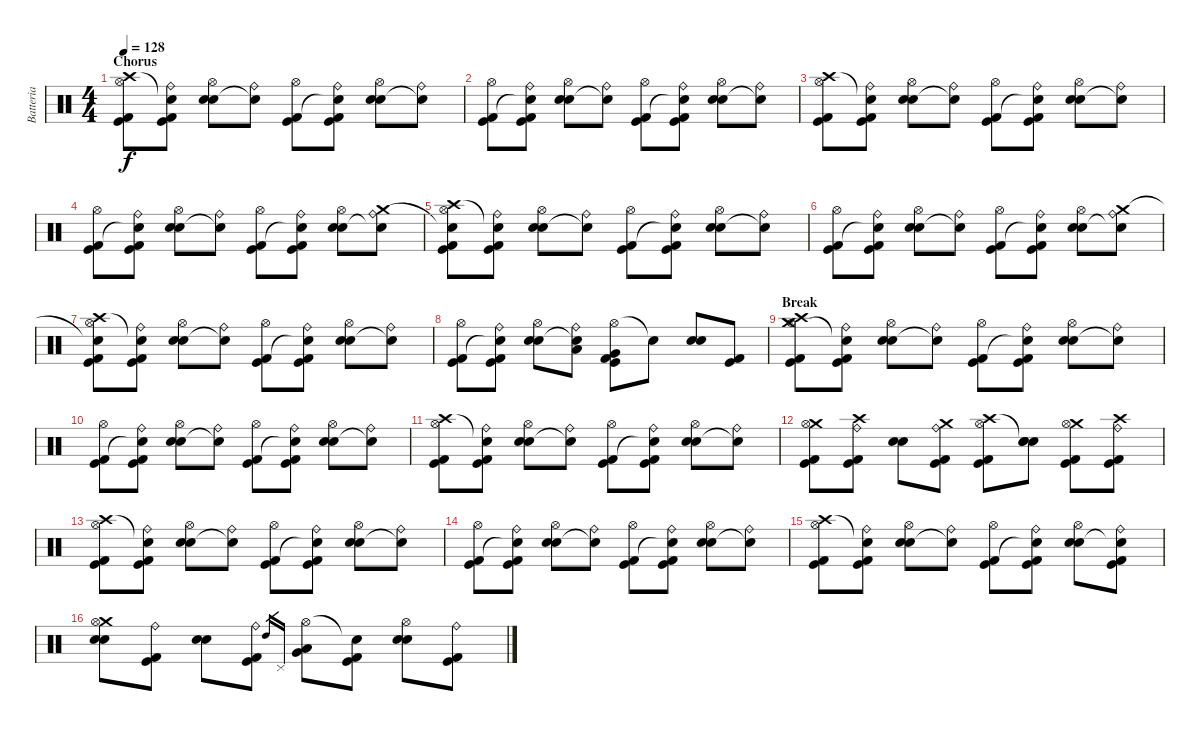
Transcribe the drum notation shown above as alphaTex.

\track ("Batteria" "Batteria") {instrument percussion}
\staff {score}
\articulation defaults
\ts (4 4)
\section ("" "Chorus")
\tempo 128
\clef neutral
\ks c
("Hi-Hat (open)" "Crash high (hit)" "Kick (hit) 2" "Kick (hit)").8{dy f} ("Ride (bell)" "Snare (hit)"{t} "Kick (hit) 2" "Kick (hit)").8 ("Hi-Hat (open)" "Electric Snare (hit)" "Electric Snare (hit)").8 ("Ride (bell)" "Snare (hit)"{t}).8 ("Hi-Hat (open)" "Kick (hit) 2" "Kick (hit)").8 ("Ride (bell)" "Snare (hit)"{t} "Kick (hit) 2" "Kick (hit)").8 ("Hi-Hat (open)" "Electric Snare (hit)" "Electric Snare (hit)").8 ("Ride (bell)" "Snare (hit)"{t}).8 |
("Hi-Hat (open)" "Kick (hit) 2" "Kick (hit)").8 ("Ride (bell)" "Snare (hit)"{t} "Kick (hit) 2" "Kick (hit)").8 ("Hi-Hat (open)" "Electric Snare (hit)" "Electric Snare (hit)").8 ("Ride (bell)" "Snare (hit)"{t}).8 ("Hi-Hat (open)" "Kick (hit) 2" "Kick (hit)").8 ("Ride (bell)" "Snare (hit)"{t} "Kick (hit) 2" "Kick (hit)").8 ("Hi-Hat (open)" "Electric Snare (hit)" "Electric Snare (hit)").8 ("Ride (bell)" "Snare (hit)"{t}).8 |
("Hi-Hat (open)" "Crash high (hit)" "Kick (hit) 2" "Kick (hit)").8 ("Ride (bell)" "Snare (hit)"{t} "Kick (hit) 2" "Kick (hit)").8 ("Hi-Hat (open)" "Electric Snare (hit)" "Electric Snare (hit)").8 ("Ride (bell)" "Snare (hit)"{t}).8 ("Hi-Hat (open)" "Kick (hit) 2" "Kick (hit)").8 ("Ride (bell)" "Snare (hit)"{t} "Kick (hit) 2" "Kick (hit)").8 ("Hi-Hat (open)" "Electric Snare (hit)" "Electric Snare (hit)").8 ("Ride (bell)" "Snare (hit)"{t}).8 |
("Hi-Hat (open)" "Kick (hit) 2" "Kick (hit)").8 ("Ride (bell)" "Snare (hit)"{t} "Kick (hit) 2" "Kick (hit)").8 ("Hi-Hat (open)" "Electric Snare (hit)" "Electric Snare (hit)").8 ("Ride (bell)" "Snare (hit)"{t}).8 ("Hi-Hat (open)" "Kick (hit) 2" "Kick (hit)").8 ("Ride (bell)" "Snare (hit)"{t} "Kick (hit) 2" "Kick (hit)").8 ("Hi-Hat (open)" "Electric Snare (hit)" "Electric Snare (hit)").8 ("Ride (bell)" "Snare (hit)"{t} "Crash medium (hit)").8 |
("Hi-Hat (open)" "Crash high (hit)" "Snare (hit)"{t} "Kick (hit) 2" "Kick (hit)").8 ("Ride (bell)" "Snare (hit)"{t} "Kick (hit) 2" "Kick (hit)").8 ("Hi-Hat (open)" "Electric Snare (hit)" "Electric Snare (hit)").8 ("Ride (bell)" "Snare (hit)"{t}).8 ("Hi-Hat (open)" "Kick (hit) 2" "Kick (hit)").8 ("Ride (bell)" "Snare (hit)"{t} "Kick (hit) 2" "Kick (hit)").8 ("Hi-Hat (open)" "Electric Snare (hit)" "Electric Snare (hit)").8 ("Ride (bell)" "Snare (hit)"{t}).8 |
("Hi-Hat (open)" "Kick (hit) 2" "Kick (hit)").8 ("Ride (bell)" "Snare (hit)"{t} "Kick (hit) 2" "Kick (hit)").8 ("Hi-Hat (open)" "Electric Snare (hit)" "Electric Snare (hit)").8 ("Ride (bell)" "Snare (hit)"{t}).8 ("Hi-Hat (open)" "Kick (hit) 2" "Kick (hit)").8 ("Ride (bell)" "Snare (hit)"{t} "Kick (hit) 2" "Kick (hit)").8 ("Hi-Hat (open)" "Electric Snare (hit)" "Electric Snare (hit)").8 ("Ride (bell)" "Snare (hit)"{t} "Crash medium (hit)").8 |
("Hi-Hat (open)" "Crash high (hit)" "Snare (hit)"{t} "Kick (hit) 2" "Kick (hit)").8 ("Ride (bell)" "Snare (hit)"{t} "Kick (hit) 2" "Kick (hit)").8 ("Hi-Hat (open)" "Electric Snare (hit)" "Electric Snare (hit)").8 ("Ride (bell)" "Snare (hit)"{t}).8 ("Hi-Hat (open)" "Kick (hit) 2" "Kick (hit)").8 ("Ride (bell)" "Snare (hit)"{t} "Kick (hit) 2" "Kick (hit)").8 ("Hi-Hat (open)" "Electric Snare (hit)" "Electric Snare (hit)").8 ("Ride (bell)" "Snare (hit)"{t}).8 |
("Hi-Hat (open)" "Kick (hit) 2" "Kick (hit)").8 ("Ride (bell)" "Snare (hit)"{t} "Kick (hit) 2" "Kick (hit)").8 ("Hi-Hat (open)" "Electric Snare (hit)" "Electric Snare (hit)").8 ("Ride (bell)" "Snare (hit)"{t} "Low Tom (hit)").8 ("Hi-Hat (open)" "Very Low Tom (hit)" "Kick (hit) 2" "Kick (hit)").8 "Snare (hit)"{t}.8 ("Electric Snare (hit)" "Electric Snare (hit)").8 ("Kick (hit) 2" "Kick (hit)").8 |
\section ("" "Break")
("Crash medium (hit)" "Hi-Hat (open)" "Crash high (hit)" "Kick (hit) 2" "Kick (hit)").8 ("Ride (bell)" "Snare (hit)"{t} "Kick (hit) 2" "Kick (hit)").8 ("Hi-Hat (open)" "Electric Snare (hit)" "Electric Snare (hit)").8 ("Ride (bell)" "Snare (hit)"{t}).8 ("Hi-Hat (open)" "Kick (hit) 2" "Kick (hit)").8 ("Ride (bell)" "Snare (hit)"{t} "Kick (hit) 2" "Kick (hit)").8 ("Hi-Hat (open)" "Electric Snare (hit)" "Electric Snare (hit)").8 ("Ride (bell)" "Snare (hit)"{t}).8 |
("Hi-Hat (open)" "Kick (hit) 2" "Kick (hit)").8 ("Ride (bell)" "Snare (hit)"{t} "Kick (hit) 2" "Kick (hit)").8 ("Hi-Hat (open)" "Electric Snare (hit)" "Electric Snare (hit)").8 ("Ride (bell)" "Snare (hit)"{t}).8 ("Hi-Hat (open)" "Kick (hit) 2" "Kick (hit)").8 ("Ride (bell)" "Snare (hit)"{t} "Kick (hit) 2" "Kick (hit)").8 ("Hi-Hat (open)" "Electric Snare (hit)" "Electric Snare (hit)").8 ("Ride (bell)" "Snare (hit)"{t}).8 |
("Hi-Hat (open)" "Crash high (hit)" "Kick (hit) 2" "Kick (hit)").8 ("Ride (bell)" "Snare (hit)"{t} "Kick (hit) 2" "Kick (hit)").8 ("Hi-Hat (open)" "Electric Snare (hit)" "Electric Snare (hit)").8 ("Ride (bell)" "Snare (hit)"{t}).8 ("Hi-Hat (open)" "Kick (hit) 2" "Kick (hit)").8 ("Ride (bell)" "Snare (hit)"{t} "Kick (hit) 2" "Kick (hit)").8 ("Hi-Hat (open)" "Electric Snare (hit)" "Electric Snare (hit)").8 ("Ride (bell)" "Snare (hit)"{t}).8 |
("Crash medium (hit)" "Hi-Hat (open)" "Kick (hit) 2" "Kick (hit)").8 ("Ride (bell)" "Crash high (hit)" "Kick (hit) 2" "Kick (hit)").8 ("Electric Snare (hit)" "Electric Snare (hit)").8 ("Ride (bell)" "Crash medium (hit)" "Kick (hit) 2" "Kick (hit)").8 ("Crash high (hit)" "Hi-Hat (open)" "Kick (hit) 2" "Kick (hit)").8 ("Snare (hit)"{t} "Electric Snare (hit)" "Electric Snare (hit)").8 ("Crash medium (hit)" "Hi-Hat (open)" "Kick (hit) 2" "Kick (hit)").8 ("Ride (bell)" "Crash high (hit)" "Kick (hit) 2" "Kick (hit)").8 |
("Hi-Hat (open)" "Crash high (hit)" "Kick (hit) 2" "Kick (hit)").8 ("Ride (bell)" "Snare (hit)"{t} "Kick (hit) 2" "Kick (hit)").8 ("Hi-Hat (open)" "Electric Snare (hit)" "Electric Snare (hit)").8 ("Ride (bell)" "Snare (hit)"{t}).8 ("Hi-Hat (open)" "Kick (hit) 2" "Kick (hit)").8 ("Ride (bell)" "Snare (hit)"{t} "Kick (hit) 2" "Kick (hit)").8 ("Hi-Hat (open)" "Electric Snare (hit)" "Electric Snare (hit)").8 ("Ride (bell)" "Snare (hit)"{t}).8 |
("Hi-Hat (open)" "Kick (hit) 2" "Kick (hit)").8 ("Ride (bell)" "Snare (hit)"{t} "Kick (hit) 2" "Kick (hit)").8 ("Hi-Hat (open)" "Electric Snare (hit)" "Electric Snare (hit)").8 ("Ride (bell)" "Snare (hit)"{t}).8 ("Hi-Hat (open)" "Kick (hit) 2" "Kick (hit)").8 ("Ride (bell)" "Snare (hit)"{t} "Kick (hit) 2" "Kick (hit)").8 ("Hi-Hat (open)" "Electric Snare (hit)" "Electric Snare (hit)").8 ("Ride (bell)" "Snare (hit)"{t}).8 |
("Hi-Hat (open)" "Crash high (hit)" "Kick (hit) 2" "Kick (hit)").8 ("Ride (bell)" "Snare (hit)"{t} "Kick (hit) 2" "Kick (hit)").8 ("Hi-Hat (open)" "Electric Snare (hit)" "Electric Snare (hit)").8 ("Ride (bell)" "Snare (hit)"{t}).8 ("Hi-Hat (open)" "Kick (hit) 2" "Kick (hit)").8 ("Ride (bell)" "Snare (hit)"{t} "Kick (hit) 2" "Kick (hit)").8 ("Hi-Hat (open)" "Electric Snare (hit)" "Electric Snare (hit)").8 ("Ride (bell)" "Snare (hit)"{t} "Kick (hit) 2" "Kick (hit)").8 |
("Crash medium (hit)" "Hi-Hat (open)" "Electric Snare (hit)" "Electric Snare (hit)").8 ("Ride (bell)" "Kick (hit) 2" "Kick (hit)").8 ("Electric Snare (hit)" "Electric Snare (hit)").8 ("Ride (bell)" "Kick (hit) 2" "Kick (hit)").8 "High Tom (hit)".16{gr} "Pedal Hi-Hat (hit)".16{gr} ("Hi-Hat (open)" "Very Low Tom (hit)" "Low Floor Tom (hit)").8 ("Snare (hit)"{t} "Kick (hit) 2" "Kick (hit)").8 ("Hi-Hat (open)" "Electric Snare (hit)" "Electric Snare (hit)").8 ("Ride (bell)" "Kick (hit) 2" "Kick (hit)").8
